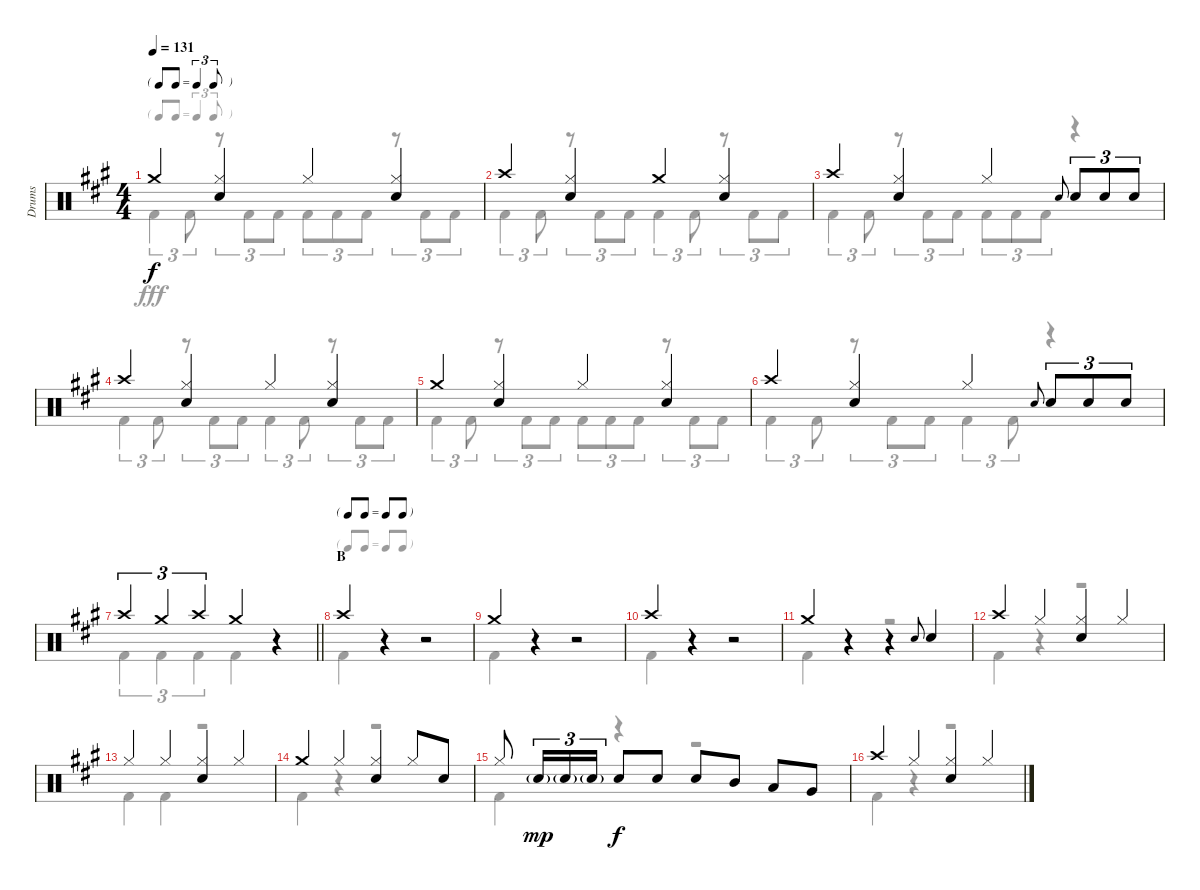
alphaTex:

\track ("Drums" "Drums") {instrument percussion}
\staff {score}
\articulation defaults
\voice
\ts (4 4)
\tf triplet8th
\tempo 131
\clef neutral
\ks a "Crash medium (hit)".4{dy f}
("Hi-Hat (closed)" "Snare (hit) 2").4 "Hi-Hat (closed)".4 ("Hi-Hat (closed)" "Snare (hit) 2").4 |
"Crash high (hit)".4 ("Hi-Hat (closed)" "Snare (hit) 2").4 "Crash medium (hit)".4 ("Hi-Hat (closed)" "Snare (hit) 2").4 |
"Crash high (hit)".4 ("Hi-Hat (closed)" "Snare (hit) 2").4 "Hi-Hat (closed)".4 "Snare (hit) 2".8{gr onbeat} "Snare (hit) 2".8{tu (3 2)} "Snare (hit) 2".8{tu (3 2)} "Snare (hit) 2".8{tu (3 2)} |
"Crash high (hit)".4 ("Hi-Hat (closed)" "Snare (hit) 2").4 "Hi-Hat (closed)".4 ("Hi-Hat (closed)" "Snare (hit) 2").4 |
"Crash medium (hit)".4 ("Hi-Hat (closed)" "Snare (hit) 2").4 "Hi-Hat (closed)".4 ("Hi-Hat (closed)" "Snare (hit) 2").4 |
"Crash high (hit)".4 ("Hi-Hat (closed)" "Snare (hit) 2").4 "Hi-Hat (closed)".4 "Snare (hit) 2".8{gr onbeat} "Snare (hit) 2".8{tu (3 2)} "Snare (hit) 2".8{tu (3 2)} "Snare (hit) 2".8{tu (3 2)} |
\barLineRight lightlight "Crash high (hit)".4{tu (3 2)} "Crash medium (hit)".4{tu (3 2)} "Crash high (hit)".4{tu (3 2)} "Crash medium (hit)".4
r.4 |
\tf none
\section ("" "B")
"Crash high (hit)".4 r.4 r.2 |
"Crash medium (hit)".4 r.4 r.2 |
"Crash high (hit)".4 r.4 r.2 |
"Crash medium (hit)".4 r.4 r.4 "Snare (hit) 2".8{gr onbeat} "Snare (hit) 2".4 |
"Crash high (hit)".4 "Hi-Hat (closed)".4 ("Hi-Hat (closed)" "Snare (hit) 2").4 "Hi-Hat (closed)".4 |
"Hi-Hat (closed)".4 "Hi-Hat (closed)".4 ("Hi-Hat (closed)" "Snare (hit) 2").4 "Hi-Hat (closed)".4 |
"Crash medium (hit)".4 "Hi-Hat (closed)".4 ("Hi-Hat (closed)" "Snare (hit) 2").4 "Hi-Hat (closed)".8 "Snare (hit) 2".8 |
"Hi-Hat (closed)".8 "Snare (hit) 2"{g}.16{tu (3 2) dy mp} "Snare (hit) 2"{g}.16{tu (3 2)} "Snare (hit) 2"{g}.16{tu (3 2)} "Snare (hit) 2".8{dy f} "Snare (hit) 2".8 "Snare (hit) 2".8 "Mid Tom (hit)".8 "Low Tom (hit)".8 "Very Low Tom (hit)".8 |
"Crash high (hit)".4 "Hi-Hat (closed)".4 ("Hi-Hat (closed)" "Snare (hit) 2").4 "Hi-Hat (closed)".4
\voice
\clef neutral
\ottava regular
\simile none
\ks a "Kick (hit) 2".4{tu (3 2) dy fff} "Kick (hit) 2".8{tu (3 2)}
r.8{tu (3 2)} "Kick (hit) 2".8{tu (3 2)} "Kick (hit) 2".8{tu (3 2)} "Kick (hit) 2".8{tu (3 2)} "Kick (hit) 2".8{tu (3 2)} "Kick (hit) 2".8{tu (3 2)} r.8{tu (3 2)} "Kick (hit) 2".8{tu (3 2)} "Kick (hit) 2".8{tu (3 2)} |
"Kick (hit) 2".4{tu (3 2)} "Kick (hit) 2".8{tu (3 2)} r.8{tu (3 2)} "Kick (hit) 2".8{tu (3 2)} "Kick (hit) 2".8{tu (3 2)} "Kick (hit) 2".4{tu (3 2)} "Kick (hit) 2".8{tu (3 2)} r.8{tu (3 2)} "Kick (hit) 2".8{tu (3 2)} "Kick (hit) 2".8{tu (3 2)} |
"Kick (hit) 2".4{tu (3 2)} "Kick (hit) 2".8{tu (3 2)} r.8{tu (3 2)} "Kick (hit) 2".8{tu (3 2)} "Kick (hit) 2".8{tu (3 2)} "Kick (hit) 2".8{tu (3 2)} "Kick (hit) 2".8{tu (3 2)} "Kick (hit) 2".8{tu (3 2)} r.4 |
"Kick (hit) 2".4{tu (3 2)} "Kick (hit) 2".8{tu (3 2)} r.8{tu (3 2)} "Kick (hit) 2".8{tu (3 2)} "Kick (hit) 2".8{tu (3 2)} "Kick (hit) 2".4{tu (3 2)} "Kick (hit) 2".8{tu (3 2)} r.8{tu (3 2)} "Kick (hit) 2".8{tu (3 2)} "Kick (hit) 2".8{tu (3 2)} |
"Kick (hit) 2".4{tu (3 2)} "Kick (hit) 2".8{tu (3 2)} r.8{tu (3 2)} "Kick (hit) 2".8{tu (3 2)} "Kick (hit) 2".8{tu (3 2)} "Kick (hit) 2".8{tu (3 2)} "Kick (hit) 2".8{tu (3 2)} "Kick (hit) 2".8{tu (3 2)} r.8{tu (3 2)} "Kick (hit) 2".8{tu (3 2)} "Kick (hit) 2".8{tu (3 2)} |
"Kick (hit) 2".4{tu (3 2)} "Kick (hit) 2".8{tu (3 2)} r.8{tu (3 2)} "Kick (hit) 2".8{tu (3 2)} "Kick (hit) 2".8{tu (3 2)} "Kick (hit) 2".4{tu (3 2)} "Kick (hit) 2".8{tu (3 2)} r.4 |
\barLineRight lightlight "Kick (hit) 2".4{tu (3 2)} "Kick (hit) 2".4{tu (3 2)} "Kick (hit) 2".4{tu (3 2)} "Kick (hit) 2".4
r.4 |
"Kick (hit) 2".4 r.4 r.2 |
"Kick (hit) 2".4 r.4 r.2 |
"Kick (hit) 2".4 r.4 r.2 |
"Kick (hit) 2".4 r.4 r.2 |
"Kick (hit) 2".4 r.4 r.2 |
"Kick (hit) 2".4 "Kick (hit) 2".4 r.2 |
"Kick (hit) 2".4 r.4 r.2 |
"Kick (hit) 2".4 r.4 r.2 |
"Kick (hit) 2".4 r.4 r.2
